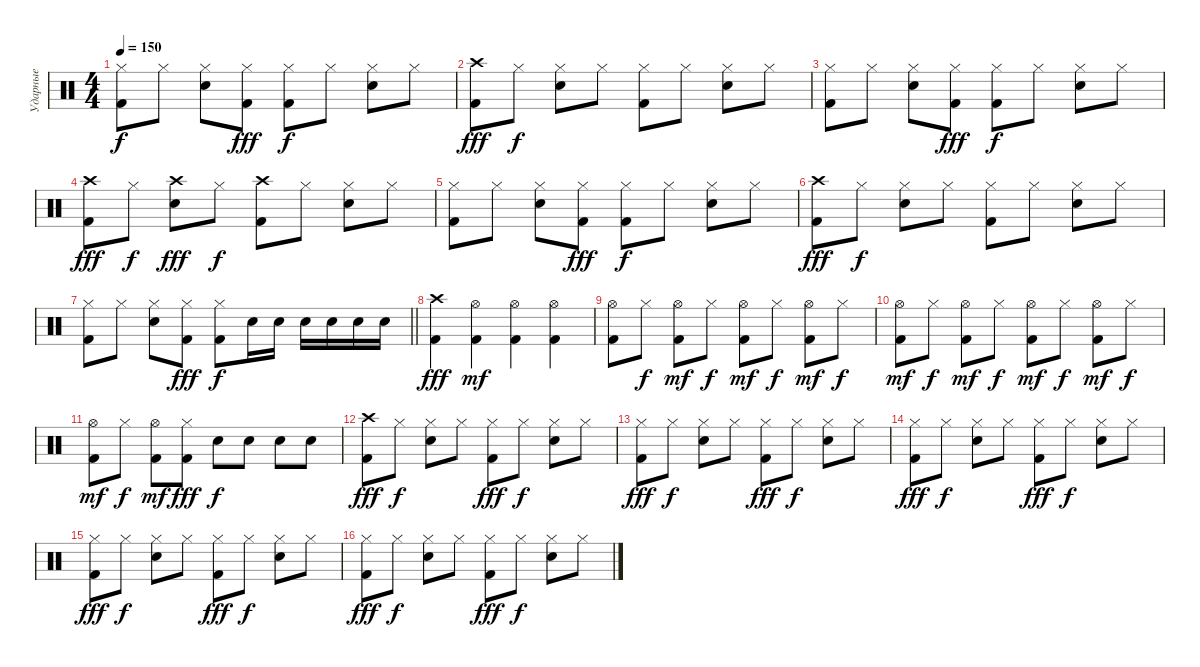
\track ("Ударные" "Ударные") {instrument percussion}
\staff
\articulation defaults
\ts (4 4)
\tempo 150
\clef neutral
\ks c
("Kick (hit) 2" "Hi-Hat (closed)").8{dy f} "Hi-Hat (closed)".8 ("Snare (hit) 2" "Hi-Hat (closed)").8 ("Kick (hit) 2" "Hi-Hat (closed)").8{dy fff} ("Kick (hit) 2" "Hi-Hat (closed)").8{dy f} "Hi-Hat (closed)".8 ("Snare (hit) 2" "Hi-Hat (closed)").8 "Hi-Hat (closed)".8 |
("Kick (hit) 2" "Crash high (hit)").8{dy fff} "Hi-Hat (closed)".8{dy f} ("Snare (hit) 2" "Hi-Hat (closed)").8 "Hi-Hat (closed)".8 ("Kick (hit) 2" "Hi-Hat (closed)").8 "Hi-Hat (closed)".8 ("Snare (hit) 2" "Hi-Hat (closed)").8 "Hi-Hat (closed)".8 |
("Kick (hit) 2" "Hi-Hat (closed)").8 "Hi-Hat (closed)".8 ("Snare (hit) 2" "Hi-Hat (closed)").8 ("Kick (hit) 2" "Hi-Hat (closed)").8{dy fff} ("Kick (hit) 2" "Hi-Hat (closed)").8{dy f} "Hi-Hat (closed)".8 ("Snare (hit) 2" "Hi-Hat (closed)").8 "Hi-Hat (closed)".8 |
("Kick (hit) 2" "Crash high (hit)").8{dy fff} "Hi-Hat (closed)".8{dy f} ("Snare (hit) 2" "Crash high (hit)").8{dy fff} "Hi-Hat (closed)".8{dy f} ("Kick (hit) 2" "Crash high (hit)").8 "Hi-Hat (closed)".8 ("Snare (hit) 2" "Hi-Hat (closed)").8 "Hi-Hat (closed)".8 |
("Kick (hit) 2" "Hi-Hat (closed)").8 "Hi-Hat (closed)".8 ("Snare (hit) 2" "Hi-Hat (closed)").8 ("Kick (hit) 2" "Hi-Hat (closed)").8{dy fff} ("Kick (hit) 2" "Hi-Hat (closed)").8{dy f} "Hi-Hat (closed)".8 ("Snare (hit) 2" "Hi-Hat (closed)").8 "Hi-Hat (closed)".8 |
("Kick (hit) 2" "Crash high (hit)").8{dy fff} "Hi-Hat (closed)".8{dy f} ("Snare (hit) 2" "Hi-Hat (closed)").8 "Hi-Hat (closed)".8 ("Kick (hit) 2" "Hi-Hat (closed)").8 "Hi-Hat (closed)".8 ("Snare (hit) 2" "Hi-Hat (closed)").8 "Hi-Hat (closed)".8 |
\barLineRight lightlight
("Kick (hit) 2" "Hi-Hat (closed)").8 "Hi-Hat (closed)".8 ("Snare (hit) 2" "Hi-Hat (closed)").8 ("Kick (hit) 2" "Hi-Hat (closed)").8{dy fff} ("Kick (hit) 2" "Hi-Hat (closed)").8{dy f} "Snare (hit) 2".16 "Snare (hit) 2".16 "Snare (hit) 2".16 "Snare (hit) 2".16 "Snare (hit) 2".16 "Snare (hit) 2".16 |
("Kick (hit) 2" "Crash high (hit)").4{dy fff} ("Kick (hit) 2" "Hi-Hat (open)").4{dy mf} ("Kick (hit) 2" "Hi-Hat (open)").4 ("Kick (hit) 2" "Hi-Hat (open)").4 |
("Kick (hit) 2" "Hi-Hat (open)").8 "Hi-Hat (closed)".8{dy f} ("Kick (hit) 2" "Hi-Hat (open)").8{dy mf} "Hi-Hat (closed)".8{dy f} ("Kick (hit) 2" "Hi-Hat (open)").8{dy mf} "Hi-Hat (closed)".8{dy f} ("Kick (hit) 2" "Hi-Hat (open)").8{dy mf} "Hi-Hat (closed)".8{dy f} |
("Kick (hit) 2" "Hi-Hat (open)").8{dy mf} "Hi-Hat (closed)".8{dy f} ("Kick (hit) 2" "Hi-Hat (open)").8{dy mf} "Hi-Hat (closed)".8{dy f} ("Kick (hit) 2" "Hi-Hat (open)").8{dy mf} "Hi-Hat (closed)".8{dy f} ("Kick (hit) 2" "Hi-Hat (open)").8{dy mf} "Hi-Hat (closed)".8{dy f} |
("Kick (hit) 2" "Hi-Hat (open)").8{dy mf} "Hi-Hat (closed)".8{dy f} ("Kick (hit) 2" "Hi-Hat (open)").8{dy mf} ("Kick (hit) 2" "Hi-Hat (closed)").8{dy fff} "Snare (hit) 2".8{dy f} "Snare (hit) 2".8 "Snare (hit) 2".8 "Snare (hit) 2".8 |
("Kick (hit) 2" "Crash high (hit)").8{dy fff} "Hi-Hat (closed)".8{dy f} ("Snare (hit) 2" "Hi-Hat (closed)").8 "Hi-Hat (closed)".8 ("Kick (hit) 2" "Hi-Hat (closed)").8{dy fff} "Hi-Hat (closed)".8{dy f} ("Snare (hit) 2" "Hi-Hat (closed)").8 "Hi-Hat (closed)".8 |
("Kick (hit) 2" "Hi-Hat (closed)").8{dy fff} "Hi-Hat (closed)".8{dy f} ("Snare (hit) 2" "Hi-Hat (closed)").8 "Hi-Hat (closed)".8 ("Kick (hit) 2" "Hi-Hat (closed)").8{dy fff} "Hi-Hat (closed)".8{dy f} ("Snare (hit) 2" "Hi-Hat (closed)").8 "Hi-Hat (closed)".8 |
("Kick (hit) 2" "Hi-Hat (closed)").8{dy fff} "Hi-Hat (closed)".8{dy f} ("Snare (hit) 2" "Hi-Hat (closed)").8 "Hi-Hat (closed)".8 ("Kick (hit) 2" "Hi-Hat (closed)").8{dy fff} "Hi-Hat (closed)".8{dy f} ("Snare (hit) 2" "Hi-Hat (closed)").8 "Hi-Hat (closed)".8 |
("Kick (hit) 2" "Hi-Hat (closed)").8{dy fff} "Hi-Hat (closed)".8{dy f} ("Snare (hit) 2" "Hi-Hat (closed)").8 "Hi-Hat (closed)".8 ("Kick (hit) 2" "Hi-Hat (closed)").8{dy fff} "Hi-Hat (closed)".8{dy f} ("Snare (hit) 2" "Hi-Hat (closed)").8 "Hi-Hat (closed)".8 |
("Kick (hit) 2" "Hi-Hat (closed)").8{dy fff} "Hi-Hat (closed)".8{dy f} ("Snare (hit) 2" "Hi-Hat (closed)").8 "Hi-Hat (closed)".8 ("Kick (hit) 2" "Hi-Hat (closed)").8{dy fff} "Hi-Hat (closed)".8{dy f} ("Snare (hit) 2" "Hi-Hat (closed)").8 "Hi-Hat (closed)".8
